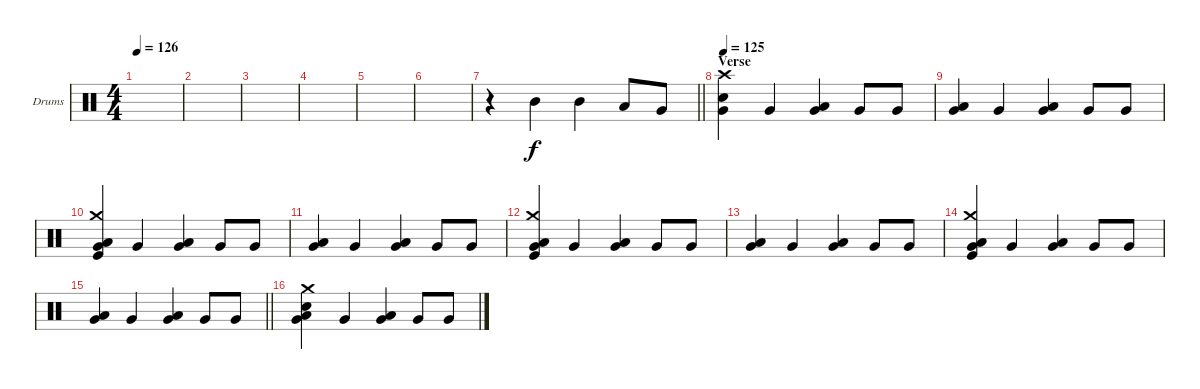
\defaultSystemsLayout 4
\bracketExtendMode groupsimilarinstruments
\firstSystemTrackNameOrientation horizontal
\otherSystemsTrackNameOrientation horizontal
\chordDiagramsInScore
\track ("Drumkit" "Drums") {instrument percussion}
\staff {score}
\articulation defaults
\ts (4 4)
\tempo 126
\clef neutral
\scale
0.333333
\ks c
|
\scale
0.333333 |
\scale
0.333333 |
\scale
0.333333 |
\scale
0.333333 |
\scale
0.333333 |
\scale
0.333333
\barLineRight lightlight
r.4 "Mid Tom (hit)".4 "Mid Tom (hit)".4 "Low Tom (hit)".8 "Very Low Tom (hit)".8 |
\section ("" "Verse")
\tempo 125
\scale
0.333333 ("Very Low Tom (hit)" "Snare (hit) 2" "Crash high (hit)").4 "Very Low Tom (hit)".4 ("Very Low Tom (hit)" "Low Tom (hit)").4 "Very Low Tom (hit)".8 "Very Low Tom (hit)".8 |
\scale
0.333333 ("Very Low Tom (hit)" "Low Tom (hit)").4 "Very Low Tom (hit)".4 ("Very Low Tom (hit)" "Low Tom (hit)").4 "Very Low Tom (hit)".8 "Very Low Tom (hit)".8 |
\scale
0.333333 ("Very Low Tom (hit)" "Low Tom (hit)" "Crash medium (hit)" "Kick (hit)").4 "Very Low Tom (hit)".4 ("Very Low Tom (hit)" "Low Tom (hit)").4 "Very Low Tom (hit)".8 "Very Low Tom (hit)".8 |
\scale
0.333333 ("Very Low Tom (hit)" "Low Tom (hit)").4 "Very Low Tom (hit)".4 ("Very Low Tom (hit)" "Low Tom (hit)").4 "Very Low Tom (hit)".8 "Very Low Tom (hit)".8 |
\scale
0.333333 ("Very Low Tom (hit)" "Low Tom (hit)" "Crash medium (hit)" "Kick (hit)").4 "Very Low Tom (hit)".4 ("Very Low Tom (hit)" "Low Tom (hit)").4 "Very Low Tom (hit)".8 "Very Low Tom (hit)".8 |
\scale
0.333333 ("Very Low Tom (hit)" "Low Tom (hit)").4 "Very Low Tom (hit)".4 ("Very Low Tom (hit)" "Low Tom (hit)").4 "Very Low Tom (hit)".8 "Very Low Tom (hit)".8 |
\scale
0.333333 ("Very Low Tom (hit)" "Low Tom (hit)" "Crash medium (hit)" "Kick (hit)").4 "Very Low Tom (hit)".4 ("Very Low Tom (hit)" "Low Tom (hit)").4 "Very Low Tom (hit)".8 "Very Low Tom (hit)".8 |
\scale
0.333333
\barLineRight lightlight
("Very Low Tom (hit)" "Low Tom (hit)").4 "Very Low Tom (hit)".4 ("Very Low Tom (hit)" "Low Tom (hit)").4 "Very Low Tom (hit)".8 "Very Low Tom (hit)".8 |
\scale
0.333333 ("Very Low Tom (hit)" "Low Tom (hit)" "Crash medium (hit)" "Snare (hit) 2").4 "Very Low Tom (hit)".4 ("Very Low Tom (hit)" "Low Tom (hit)").4 "Very Low Tom (hit)".8 "Very Low Tom (hit)".8
